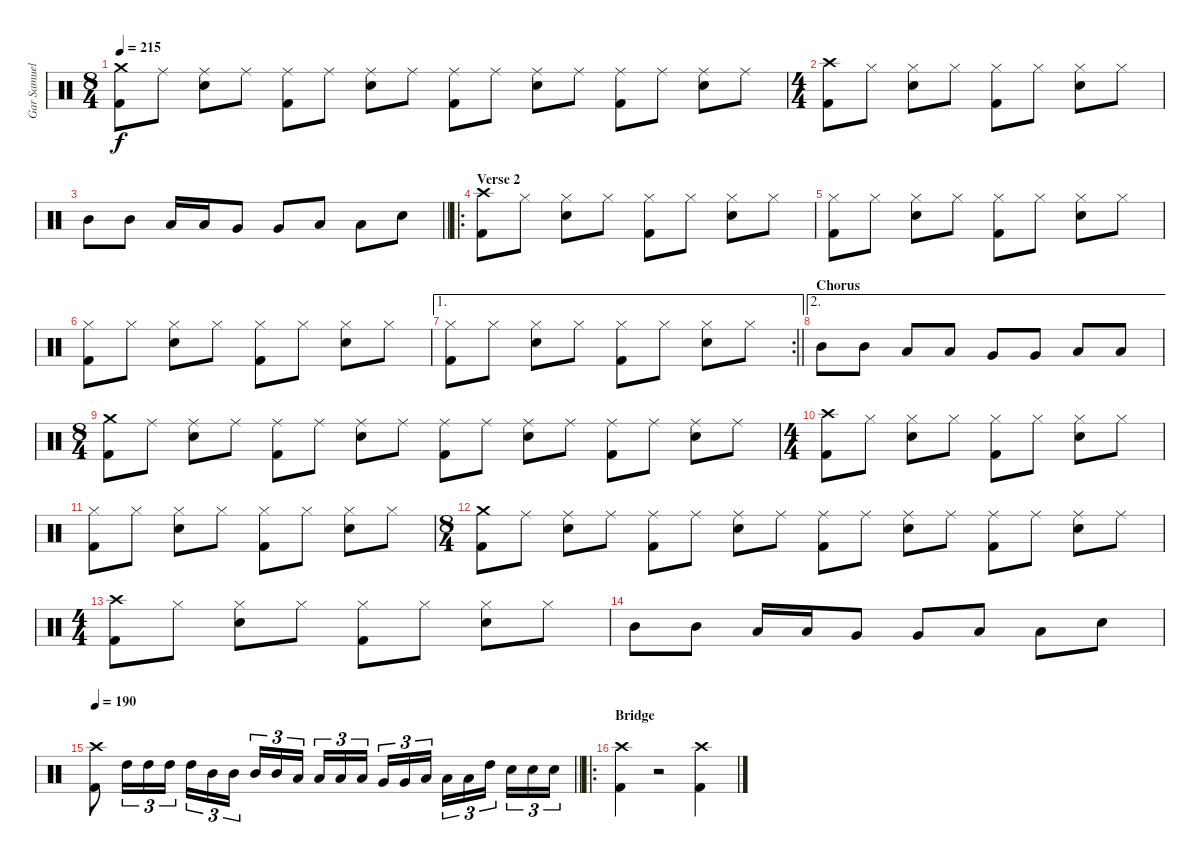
\track ("Gar Samuelson" "Gar Samuel") {instrument percussion}
\staff
\articulation defaults
\ts (8 4)
\tempo 215
\clef neutral
\ks c
("Crash medium (hit)" "Kick (hit) 2").8{dy f} "Ride (middle)".8 ("Ride (middle)" "Snare (hit) 2").8 "Ride (middle)".8 ("Ride (middle)" "Kick (hit) 2").8 "Ride (middle)".8 ("Ride (middle)" "Snare (hit) 2").8 "Ride (middle)".8 ("Ride (middle)" "Kick (hit) 2").8 "Ride (middle)".8 ("Ride (middle)" "Snare (hit) 2").8 "Ride (middle)".8 ("Ride (middle)" "Kick (hit) 2").8 "Ride (middle)".8 ("Ride (middle)" "Snare (hit) 2").8 "Ride (middle)".8 |
\ts (4 4)
("Crash high (hit)" "Kick (hit) 2").8 "Hi-Hat (closed)".8 ("Hi-Hat (closed)" "Snare (hit) 2").8 "Hi-Hat (closed)".8 ("Hi-Hat (closed)" "Kick (hit) 2").8 "Hi-Hat (closed)".8 ("Hi-Hat (closed)" "Snare (hit) 2").8 "Hi-Hat (closed)".8 |
\barLineRight lightlight "Mid Tom (hit)".8 "Mid Tom (hit)".8 "Low Tom (hit)".16 "Low Tom (hit)".16 "Very Low Tom (hit)".8 "Very Low Tom (hit)".8 "Low Floor Tom (hit)".8 "Low Floor Tom (hit)".8 "Snare (hit) 2".8
|
\ro
\section ("" "Verse 2")
("Crash high (hit)" "Kick (hit) 2").8 "Hi-Hat (closed)".8 ("Hi-Hat (closed)" "Snare (hit) 2").8 "Hi-Hat (closed)".8 ("Hi-Hat (closed)" "Kick (hit) 2").8 "Hi-Hat (closed)".8 ("Hi-Hat (closed)" "Snare (hit) 2").8 "Hi-Hat (closed)".8 |
("Hi-Hat (closed)" "Kick (hit) 2").8 "Hi-Hat (closed)".8 ("Hi-Hat (closed)" "Snare (hit) 2").8 "Hi-Hat (closed)".8 ("Hi-Hat (closed)" "Kick (hit) 2").8 "Hi-Hat (closed)".8 ("Hi-Hat (closed)" "Snare (hit) 2").8 "Hi-Hat (closed)".8 |
("Hi-Hat (closed)" "Kick (hit) 2").8 "Hi-Hat (closed)".8 ("Hi-Hat (closed)" "Snare (hit) 2").8 "Hi-Hat (closed)".8 ("Hi-Hat (closed)" "Kick (hit) 2").8 "Hi-Hat (closed)".8 ("Hi-Hat (closed)" "Snare (hit) 2").8 "Hi-Hat (closed)".8 |
\ae 1
\rc 2
\barLineRight lightlight
("Hi-Hat (closed)" "Kick (hit) 2").8 "Hi-Hat (closed)".8 ("Hi-Hat (closed)" "Snare (hit) 2").8 "Hi-Hat (closed)".8 ("Hi-Hat (closed)" "Kick (hit) 2").8 "Hi-Hat (closed)".8 ("Hi-Hat (closed)" "Snare (hit) 2").8 "Hi-Hat (closed)".8 |
\ae 2
\section ("" "Chorus")
"Mid Tom (hit)".8 "Mid Tom (hit)".8 "Low Tom (hit)".8 "Low Tom (hit)".8 "Very Low Tom (hit)".8 "Very Low Tom (hit)".8 "Low Floor Tom (hit)".8 "Low Floor Tom (hit)".8 |
\ts (8 4)
("Crash medium (hit)" "Kick (hit) 2").8 "Ride (middle)".8 ("Ride (middle)" "Snare (hit) 2").8 "Ride (middle)".8 ("Ride (middle)" "Kick (hit) 2").8 "Ride (middle)".8 ("Ride (middle)" "Snare (hit) 2").8 "Ride (middle)".8 ("Ride (middle)" "Kick (hit) 2").8 "Ride (middle)".8 ("Ride (middle)" "Snare (hit) 2").8 "Ride (middle)".8 ("Ride (middle)" "Kick (hit) 2").8 "Ride (middle)".8 ("Ride (middle)" "Snare (hit) 2").8 "Ride (middle)".8 |
\ts (4 4)
("Crash high (hit)" "Kick (hit) 2").8 "Hi-Hat (closed)".8 ("Hi-Hat (closed)" "Snare (hit) 2").8 "Hi-Hat (closed)".8 ("Hi-Hat (closed)" "Kick (hit) 2").8 "Hi-Hat (closed)".8 ("Hi-Hat (closed)" "Snare (hit) 2").8 "Hi-Hat (closed)".8 |
("Hi-Hat (closed)" "Kick (hit) 2").8 "Hi-Hat (closed)".8 ("Hi-Hat (closed)" "Snare (hit) 2").8 "Hi-Hat (closed)".8 ("Hi-Hat (closed)" "Kick (hit) 2").8 "Hi-Hat (closed)".8 ("Hi-Hat (closed)" "Snare (hit) 2").8 "Hi-Hat (closed)".8 |
\ts (8 4)
("Crash medium (hit)" "Kick (hit) 2").8 "Ride (middle)".8 ("Ride (middle)" "Snare (hit) 2").8 "Ride (middle)".8 ("Ride (middle)" "Kick (hit) 2").8 "Ride (middle)".8 ("Ride (middle)" "Snare (hit) 2").8 "Ride (middle)".8 ("Ride (middle)" "Kick (hit) 2").8 "Ride (middle)".8 ("Ride (middle)" "Snare (hit) 2").8 "Ride (middle)".8 ("Ride (middle)" "Kick (hit) 2").8 "Ride (middle)".8 ("Ride (middle)" "Snare (hit) 2").8 "Ride (middle)".8 |
\ts (4 4)
("Crash high (hit)" "Kick (hit) 2").8 "Hi-Hat (closed)".8 ("Hi-Hat (closed)" "Snare (hit) 2").8 "Hi-Hat (closed)".8 ("Hi-Hat (closed)" "Kick (hit) 2").8 "Hi-Hat (closed)".8 ("Hi-Hat (closed)" "Snare (hit) 2").8 "Hi-Hat (closed)".8 |
"Mid Tom (hit)".8 "Mid Tom (hit)".8 "Low Tom (hit)".16 "Low Tom (hit)".16 "Very Low Tom (hit)".8 "Very Low Tom (hit)".8 "Low Floor Tom (hit)".8 "Low Floor Tom (hit)".8 "Snare (hit) 2".8 |
\tempo 190
\barLineRight lightlight
("Crash high (hit)" "Kick (hit) 2").8 "High Tom (hit)".16{tu (3 2)} "High Tom (hit)".16{tu (3 2)} "High Tom (hit)".16{tu (3 2)} "High Tom (hit)".16{tu (3 2)} "Mid Tom (hit)".16{tu (3 2)} "Mid Tom (hit)".16{tu (3 2) beam splitsecondary} "Mid Tom (hit)".16{tu (3 2)} "Mid Tom (hit)".16{tu (3 2)} "Low Tom (hit)".16{tu (3 2)} "Low Tom (hit)".16{tu (3 2)} "Low Tom (hit)".16{tu (3 2)} "Low Tom (hit)".16{tu (3 2) beam splitsecondary} "Very Low Tom (hit)".16{tu (3 2)} "Very Low Tom (hit)".16{tu (3 2)} "Low Floor Tom (hit)".16{tu (3 2)} "Low Floor Tom (hit)".16{tu (3 2)} "Low Floor Tom (hit)".16{tu (3 2)} "High Tom (hit)".16{tu (3 2) beam splitsecondary} "Snare (hit) 2".16{tu (3 2)} "Snare (hit) 2".16{tu (3 2)} "Snare (hit) 2".16{tu (3 2)} |
\ro
\section ("" "Bridge")
("Crash high (hit)" "Kick (hit) 2").4 r.2 ("Crash high (hit)" "Kick (hit) 2").4
